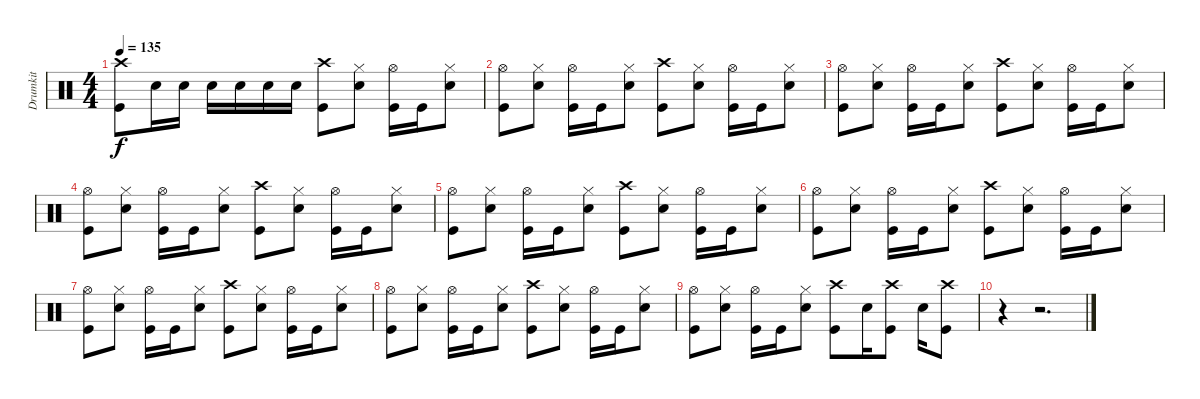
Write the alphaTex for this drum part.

\track ("Drumkit" "Drumkit") {instrument percussion}
\staff {score}
\articulation defaults
\ts (4 4)
\tempo 135
\clef neutral
\ks c
("Kick (hit)" "Crash high (hit)").8{dy f} "Snare (hit) 2".16 "Snare (hit) 2".16 "Snare (hit) 2".16 "Snare (hit) 2".16 "Snare (hit) 2".16 "Snare (hit) 2".16 ("Crash high (hit)" "Kick (hit)").8 ("Hi-Hat (closed)" "Snare (hit) 2").8 ("Hi-Hat (open)" "Kick (hit)").16 "Kick (hit)".16 ("Snare (hit) 2" "Hi-Hat (closed)").8 |
("Hi-Hat (open)" "Kick (hit)").8 ("Snare (hit) 2" "Hi-Hat (closed)").8 ("Hi-Hat (open)" "Kick (hit)").16 "Kick (hit)".16 ("Hi-Hat (closed)" "Snare (hit) 2").8 ("Crash high (hit)" "Kick (hit)").8 ("Hi-Hat (closed)" "Snare (hit) 2").8 ("Hi-Hat (open)" "Kick (hit)").16 "Kick (hit)".16 ("Snare (hit) 2" "Hi-Hat (closed)").8 |
("Hi-Hat (open)" "Kick (hit)").8 ("Snare (hit) 2" "Hi-Hat (closed)").8 ("Hi-Hat (open)" "Kick (hit)").16 "Kick (hit)".16 ("Hi-Hat (closed)" "Snare (hit) 2").8 ("Crash high (hit)" "Kick (hit)").8 ("Hi-Hat (closed)" "Snare (hit) 2").8 ("Hi-Hat (open)" "Kick (hit)").16 "Kick (hit)".16 ("Snare (hit) 2" "Hi-Hat (closed)").8 |
("Hi-Hat (open)" "Kick (hit)").8 ("Snare (hit) 2" "Hi-Hat (closed)").8 ("Hi-Hat (open)" "Kick (hit)").16 "Kick (hit)".16 ("Hi-Hat (closed)" "Snare (hit) 2").8 ("Crash high (hit)" "Kick (hit)").8 ("Hi-Hat (closed)" "Snare (hit) 2").8 ("Hi-Hat (open)" "Kick (hit)").16 "Kick (hit)".16 ("Snare (hit) 2" "Hi-Hat (closed)").8 |
("Hi-Hat (open)" "Kick (hit)").8 ("Snare (hit) 2" "Hi-Hat (closed)").8 ("Hi-Hat (open)" "Kick (hit)").16 "Kick (hit)".16 ("Hi-Hat (closed)" "Snare (hit) 2").8 ("Crash high (hit)" "Kick (hit)").8 ("Hi-Hat (closed)" "Snare (hit) 2").8 ("Hi-Hat (open)" "Kick (hit)").16 "Kick (hit)".16 ("Snare (hit) 2" "Hi-Hat (closed)").8 |
("Hi-Hat (open)" "Kick (hit)").8 ("Snare (hit) 2" "Hi-Hat (closed)").8 ("Hi-Hat (open)" "Kick (hit)").16 "Kick (hit)".16 ("Hi-Hat (closed)" "Snare (hit) 2").8 ("Crash high (hit)" "Kick (hit)").8 ("Hi-Hat (closed)" "Snare (hit) 2").8 ("Hi-Hat (open)" "Kick (hit)").16 "Kick (hit)".16 ("Snare (hit) 2" "Hi-Hat (closed)").8 |
("Hi-Hat (open)" "Kick (hit)").8 ("Snare (hit) 2" "Hi-Hat (closed)").8 ("Hi-Hat (open)" "Kick (hit)").16 "Kick (hit)".16 ("Hi-Hat (closed)" "Snare (hit) 2").8 ("Crash high (hit)" "Kick (hit)").8 ("Hi-Hat (closed)" "Snare (hit) 2").8 ("Hi-Hat (open)" "Kick (hit)").16 "Kick (hit)".16 ("Snare (hit) 2" "Hi-Hat (closed)").8 |
("Hi-Hat (open)" "Kick (hit)").8 ("Snare (hit) 2" "Hi-Hat (closed)").8 ("Hi-Hat (open)" "Kick (hit)").16 "Kick (hit)".16 ("Hi-Hat (closed)" "Snare (hit) 2").8 ("Crash high (hit)" "Kick (hit)").8 ("Hi-Hat (closed)" "Snare (hit) 2").8 ("Hi-Hat (open)" "Kick (hit)").16 "Kick (hit)".16 ("Snare (hit) 2" "Hi-Hat (closed)").8 |
("Hi-Hat (open)" "Kick (hit)").8 ("Snare (hit) 2" "Hi-Hat (closed)").8 ("Hi-Hat (open)" "Kick (hit)").16 "Kick (hit)".16 ("Hi-Hat (closed)" "Snare (hit) 2").8 ("Kick (hit)" "Crash high (hit)").8 "Snare (hit) 2".16 ("Crash high (hit)" "Kick (hit)").8 "Snare (hit) 2".16 ("Crash high (hit)" "Kick (hit)").8 |
r.4 r.2{d}
